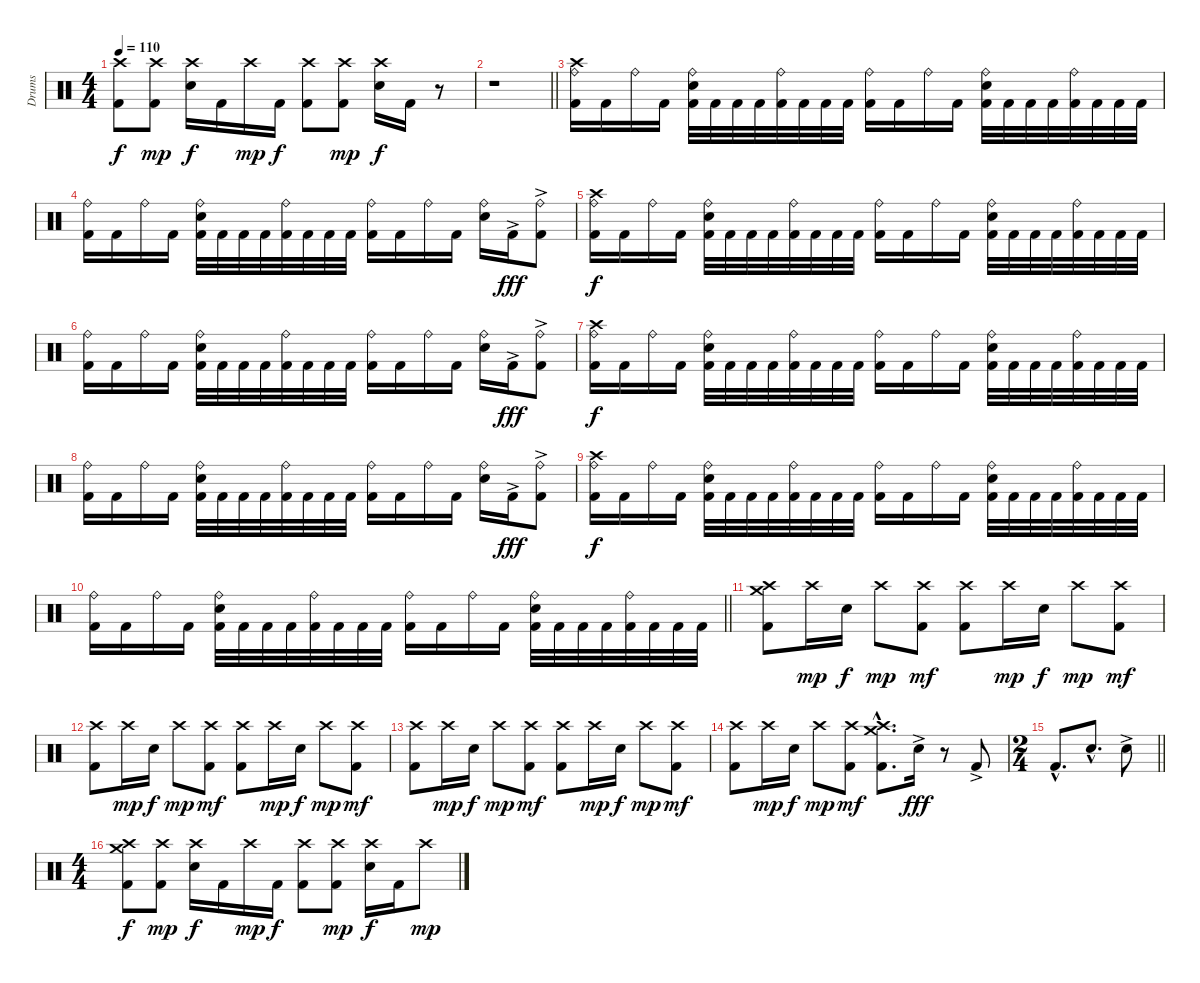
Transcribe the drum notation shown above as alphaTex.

\track ("Drums" "Drums") {instrument percussion}
\staff {score}
\articulation defaults
\ts (4 4)
\tempo 110
\clef neutral
\ks c
("Crash high (hit)" "Kick (hit) 2").8{dy f} ("Crash high (hit)" "Kick (hit) 2").8{dy mp} ("Crash high (hit)" "Snare (hit) 2").16{dy f} "Kick (hit) 2".16 "Crash high (hit)".16{dy mp} "Kick (hit) 2".16{dy f} ("Crash high (hit)" "Kick (hit) 2").8 ("Crash high (hit)" "Kick (hit) 2").8{dy mp} ("Crash high (hit)" "Snare (hit) 2").16{dy f} "Kick (hit) 2".16 r.8 |
\barLineRight lightlight
r.1 |
("Crash high (hit)" "Ride (bell)" "Kick (hit) 2").16 "Kick (hit) 2".16 "Ride (bell)".16 "Kick (hit) 2".16 ("Ride (bell)" "Snare (hit) 2" "Kick (hit) 2").32 "Kick (hit) 2".32 "Kick (hit) 2".32 "Kick (hit) 2".32 ("Ride (bell)" "Kick (hit) 2").32 "Kick (hit) 2".32 "Kick (hit) 2".32 "Kick (hit) 2".32 ("Ride (bell)" "Kick (hit) 2").16 "Kick (hit) 2".16 "Ride (bell)".16 "Kick (hit) 2".16 ("Ride (bell)" "Snare (hit) 2" "Kick (hit) 2").32 "Kick (hit) 2".32 "Kick (hit) 2".32 "Kick (hit) 2".32 ("Ride (bell)" "Kick (hit) 2").32 "Kick (hit) 2".32 "Kick (hit) 2".32 "Kick (hit) 2".32 |
("Ride (bell)" "Kick (hit) 2").16 "Kick (hit) 2".16 "Ride (bell)".16 "Kick (hit) 2".16 ("Ride (bell)" "Snare (hit) 2" "Kick (hit) 2").32 "Kick (hit) 2".32 "Kick (hit) 2".32 "Kick (hit) 2".32 ("Ride (bell)" "Kick (hit) 2").32 "Kick (hit) 2".32 "Kick (hit) 2".32 "Kick (hit) 2".32 ("Ride (bell)" "Kick (hit) 2").16 "Kick (hit) 2".16 "Ride (bell)".16 "Kick (hit) 2".16 ("Ride (bell)" "Snare (hit) 2").16 "Kick (hit) 2"{ac}.16{dy fff} ("Ride (bell)" "Kick (hit) 2"{ac}).8 |
("Crash high (hit)" "Ride (bell)" "Kick (hit) 2").16{dy f} "Kick (hit) 2".16 "Ride (bell)".16 "Kick (hit) 2".16 ("Ride (bell)" "Snare (hit) 2" "Kick (hit) 2").32 "Kick (hit) 2".32 "Kick (hit) 2".32 "Kick (hit) 2".32 ("Ride (bell)" "Kick (hit) 2").32 "Kick (hit) 2".32 "Kick (hit) 2".32 "Kick (hit) 2".32 ("Ride (bell)" "Kick (hit) 2").16 "Kick (hit) 2".16 "Ride (bell)".16 "Kick (hit) 2".16 ("Ride (bell)" "Snare (hit) 2" "Kick (hit) 2").32 "Kick (hit) 2".32 "Kick (hit) 2".32 "Kick (hit) 2".32 ("Ride (bell)" "Kick (hit) 2").32 "Kick (hit) 2".32 "Kick (hit) 2".32 "Kick (hit) 2".32 |
("Ride (bell)" "Kick (hit) 2").16 "Kick (hit) 2".16 "Ride (bell)".16 "Kick (hit) 2".16 ("Ride (bell)" "Snare (hit) 2" "Kick (hit) 2").32 "Kick (hit) 2".32 "Kick (hit) 2".32 "Kick (hit) 2".32 ("Ride (bell)" "Kick (hit) 2").32 "Kick (hit) 2".32 "Kick (hit) 2".32 "Kick (hit) 2".32 ("Ride (bell)" "Kick (hit) 2").16 "Kick (hit) 2".16 "Ride (bell)".16 "Kick (hit) 2".16 ("Ride (bell)" "Snare (hit) 2").16 "Kick (hit) 2"{ac}.16{dy fff} ("Ride (bell)" "Kick (hit) 2"{ac}).8 |
("Crash high (hit)" "Ride (bell)" "Kick (hit) 2").16{dy f} "Kick (hit) 2".16 "Ride (bell)".16 "Kick (hit) 2".16 ("Ride (bell)" "Snare (hit) 2" "Kick (hit) 2").32 "Kick (hit) 2".32 "Kick (hit) 2".32 "Kick (hit) 2".32 ("Ride (bell)" "Kick (hit) 2").32 "Kick (hit) 2".32 "Kick (hit) 2".32 "Kick (hit) 2".32 ("Ride (bell)" "Kick (hit) 2").16 "Kick (hit) 2".16 "Ride (bell)".16 "Kick (hit) 2".16 ("Ride (bell)" "Snare (hit) 2" "Kick (hit) 2").32 "Kick (hit) 2".32 "Kick (hit) 2".32 "Kick (hit) 2".32 ("Ride (bell)" "Kick (hit) 2").32 "Kick (hit) 2".32 "Kick (hit) 2".32 "Kick (hit) 2".32 |
("Ride (bell)" "Kick (hit) 2").16 "Kick (hit) 2".16 "Ride (bell)".16 "Kick (hit) 2".16 ("Ride (bell)" "Snare (hit) 2" "Kick (hit) 2").32 "Kick (hit) 2".32 "Kick (hit) 2".32 "Kick (hit) 2".32 ("Ride (bell)" "Kick (hit) 2").32 "Kick (hit) 2".32 "Kick (hit) 2".32 "Kick (hit) 2".32 ("Ride (bell)" "Kick (hit) 2").16 "Kick (hit) 2".16 "Ride (bell)".16 "Kick (hit) 2".16 ("Ride (bell)" "Snare (hit) 2").16 "Kick (hit) 2"{ac}.16{dy fff} ("Ride (bell)" "Kick (hit) 2"{ac}).8 |
("Crash high (hit)" "Ride (bell)" "Kick (hit) 2").16{dy f} "Kick (hit) 2".16 "Ride (bell)".16 "Kick (hit) 2".16 ("Ride (bell)" "Snare (hit) 2" "Kick (hit) 2").32 "Kick (hit) 2".32 "Kick (hit) 2".32 "Kick (hit) 2".32 ("Ride (bell)" "Kick (hit) 2").32 "Kick (hit) 2".32 "Kick (hit) 2".32 "Kick (hit) 2".32 ("Ride (bell)" "Kick (hit) 2").16 "Kick (hit) 2".16 "Ride (bell)".16 "Kick (hit) 2".16 ("Ride (bell)" "Snare (hit) 2" "Kick (hit) 2").32 "Kick (hit) 2".32 "Kick (hit) 2".32 "Kick (hit) 2".32 ("Ride (bell)" "Kick (hit) 2").32 "Kick (hit) 2".32 "Kick (hit) 2".32 "Kick (hit) 2".32 |
\barLineRight lightlight
("Ride (bell)" "Kick (hit) 2").16 "Kick (hit) 2".16 "Ride (bell)".16 "Kick (hit) 2".16 ("Ride (bell)" "Snare (hit) 2" "Kick (hit) 2").32 "Kick (hit) 2".32 "Kick (hit) 2".32 "Kick (hit) 2".32 ("Ride (bell)" "Kick (hit) 2").32 "Kick (hit) 2".32 "Kick (hit) 2".32 "Kick (hit) 2".32 ("Ride (bell)" "Kick (hit) 2").16 "Kick (hit) 2".16 "Ride (bell)".16 "Kick (hit) 2".16 ("Ride (bell)" "Snare (hit) 2" "Kick (hit) 2").32 "Kick (hit) 2".32 "Kick (hit) 2".32 "Kick (hit) 2".32 ("Ride (bell)" "Kick (hit) 2").32 "Kick (hit) 2".32 "Kick (hit) 2".32 "Kick (hit) 2".32 |
("Crash medium (hit)" "Crash high (hit)" "Kick (hit) 2").8 "Crash high (hit)".16{dy mp} "Snare (hit) 2".16{dy f} "Crash high (hit)".8{dy mp} ("Crash high (hit)" "Kick (hit) 2").8{dy mf} ("Crash high (hit)" "Kick (hit) 2").8 "Crash high (hit)".16{dy mp} "Snare (hit) 2".16{dy f} "Crash high (hit)".8{dy mp} ("Crash high (hit)" "Kick (hit) 2").8{dy mf} |
("Crash high (hit)" "Kick (hit) 2").8 "Crash high (hit)".16{dy mp} "Snare (hit) 2".16{dy f} "Crash high (hit)".8{dy mp} ("Crash high (hit)" "Kick (hit) 2").8{dy mf} ("Crash high (hit)" "Kick (hit) 2").8 "Crash high (hit)".16{dy mp} "Snare (hit) 2".16{dy f} "Crash high (hit)".8{dy mp} ("Crash high (hit)" "Kick (hit) 2").8{dy mf} |
("Crash high (hit)" "Kick (hit) 2").8 "Crash high (hit)".16{dy mp} "Snare (hit) 2".16{dy f} "Crash high (hit)".8{dy mp} ("Crash high (hit)" "Kick (hit) 2").8{dy mf} ("Crash high (hit)" "Kick (hit) 2").8 "Crash high (hit)".16{dy mp} "Snare (hit) 2".16{dy f} "Crash high (hit)".8{dy mp} ("Crash high (hit)" "Kick (hit) 2").8{dy mf} |
("Crash high (hit)" "Kick (hit) 2").8 "Crash high (hit)".16{dy mp} "Snare (hit) 2".16{dy f} "Crash high (hit)".8{dy mp} ("Crash high (hit)" "Kick (hit) 2").8{dy mf} ("Crash high (hit)"{hac} "Crash medium (hit)"{hac} "Kick (hit) 2"{hac}).8{d} "Snare (hit) 2"{ac}.16{dy fff} r.8 "Kick (hit) 2"{ac}.8 |
\ts (2 4)
\barLineRight lightlight "Kick (hit) 2"{hac}.8{d} "Snare (hit) 2"{hac}.8{d} "Snare (hit) 2"{ac}.8
|
\ts (4 4)
("Crash high (hit)" "Crash medium (hit)" "Kick (hit) 2").8{dy f} ("Crash high (hit)" "Kick (hit) 2").8{dy mp} ("Crash high (hit)" "Snare (hit) 2").16{dy f} "Kick (hit) 2".16 "Crash high (hit)".16{dy mp} "Kick (hit) 2".16{dy f} ("Crash high (hit)" "Kick (hit) 2").8 ("Crash high (hit)" "Kick (hit) 2").8{dy mp} ("Crash high (hit)" "Snare (hit) 2").16{dy f} "Kick (hit) 2".16 "Crash high (hit)".8{dy mp}
